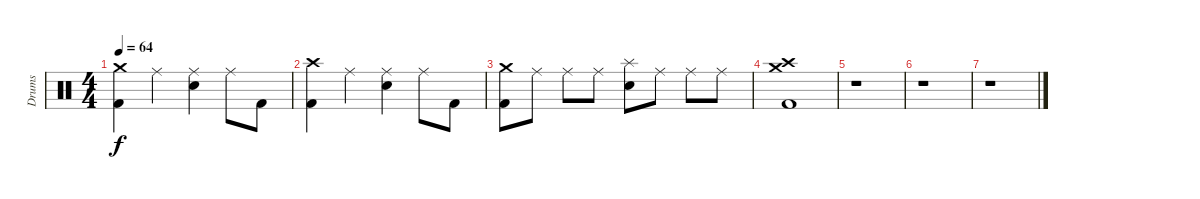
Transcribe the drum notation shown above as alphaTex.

\track ("Drums" "Drums") {instrument percussion}
\staff {score}
\articulation defaults
\ts (4 4)
\tempo 64
\clef neutral
\ks c
("Crash medium (hit)" "Kick (hit) 2").4{dy f} "Ride (middle)".4 ("Ride (middle)" "Electric Snare (hit)").4 "Ride (middle)".8 "Kick (hit) 2".8 |
("Crash high (hit)" "Kick (hit) 2").4 "Ride (middle)".4 ("Ride (middle)" "Electric Snare (hit)").4 "Ride (middle)".8 "Kick (hit) 2".8 |
("Crash medium (hit)" "Kick (hit) 2").8 "Ride (middle)".8 "Ride (middle)".8 "Ride (middle)".8 ("Splash (hit)" "Electric Snare (hit)").8 "Ride (middle)".8 "Ride (middle)".8 "Ride (middle)".8 |
("Crash high (hit)" "Crash medium (hit)" "Kick (hit) 2").1 |
r.1 |
r.1 |
r.1
